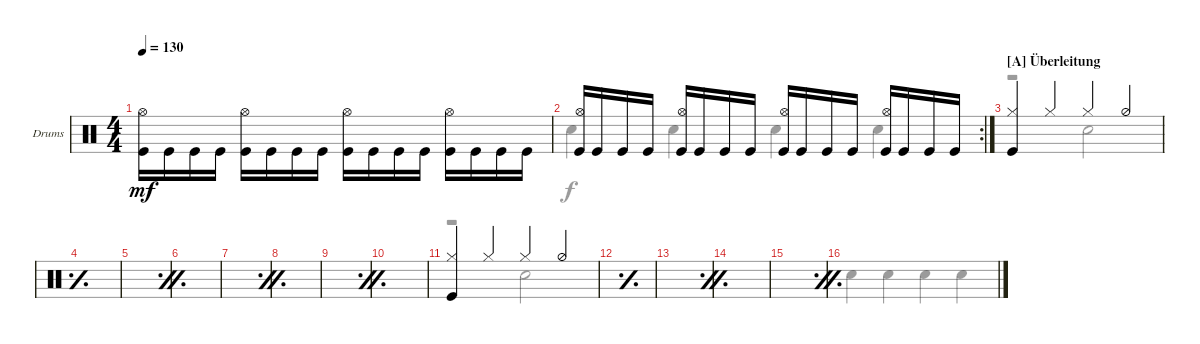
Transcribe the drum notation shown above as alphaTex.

\bracketExtendMode groupsimilarinstruments
\firstSystemTrackNameOrientation horizontal
\otherSystemsTrackNameOrientation horizontal
\track ("Drumkit" "Drums") {instrument percussion}
\staff {score}
\articulation defaults
\voice
\ts (4 4)
\tempo 130
\clef neutral
\ks aminor
("Kick (hit)" "Hi-Hat (open)").16{dy mf} "Kick (hit)".16 "Kick (hit)".16 "Kick (hit)".16 ("Kick (hit)" "Hi-Hat (open)").16 "Kick (hit)".16 "Kick (hit)".16 "Kick (hit)".16 ("Kick (hit)" "Hi-Hat (open)").16 "Kick (hit)".16 "Kick (hit)".16 "Kick (hit)".16 ("Kick (hit)" "Hi-Hat (open)").16 "Kick (hit)".16 "Kick (hit)".16 "Kick (hit)".16 |
\rc 2
("Kick (hit)" "Hi-Hat (open)").16 "Kick (hit)".16 "Kick (hit)".16 "Kick (hit)".16 ("Kick (hit)" "Hi-Hat (open)").16 "Kick (hit)".16 "Kick (hit)".16 "Kick (hit)".16 ("Kick (hit)" "Hi-Hat (open)").16 "Kick (hit)".16 "Kick (hit)".16 "Kick (hit)".16 ("Kick (hit)" "Hi-Hat (open)").16 "Kick (hit)".16 "Kick (hit)".16 "Kick (hit)".16 |
\section ("A" "Überleitung")
\ks c
("Hi-Hat (closed)" "Kick (hit)").4 "Hi-Hat (closed)".4 "Hi-Hat (closed)".4 "Hi-Hat (half)".4 |
\simile simple
|
\simile firstofdouble
|
\simile secondofdouble
|
\simile firstofdouble
|
\simile secondofdouble
|
\simile firstofdouble
|
\simile secondofdouble
|
\simile none
("Hi-Hat (closed)" "Kick (hit)").4 "Hi-Hat (closed)".4 "Hi-Hat (closed)".4 "Hi-Hat (half)".4 |
\simile simple
|
\simile firstofdouble
|
\simile secondofdouble
|
\simile firstofdouble
|
\simile secondofdouble
\voice
\clef neutral
\ottava regular
\simile none
\ks aminor "Snare (hit) 2".4{dy f} "Snare (hit) 2".4 "Snare (hit) 2".4 "Snare (hit) 2".4
|
"Snare (hit) 2".4 "Snare (hit) 2".4 "Snare (hit) 2".4 "Snare (hit) 2".4 |
\ks c
r.2 "Snare (hit) 2".2 |
\simile simple
|
\simile firstofdouble
|
\simile secondofdouble
|
\simile firstofdouble
|
\simile secondofdouble
|
\simile firstofdouble
|
\simile secondofdouble
|
\simile none
r.2 "Snare (hit) 2".2 |
\simile simple
|
\simile firstofdouble
|
\simile secondofdouble
|
\simile firstofdouble
|
\simile secondofdouble
